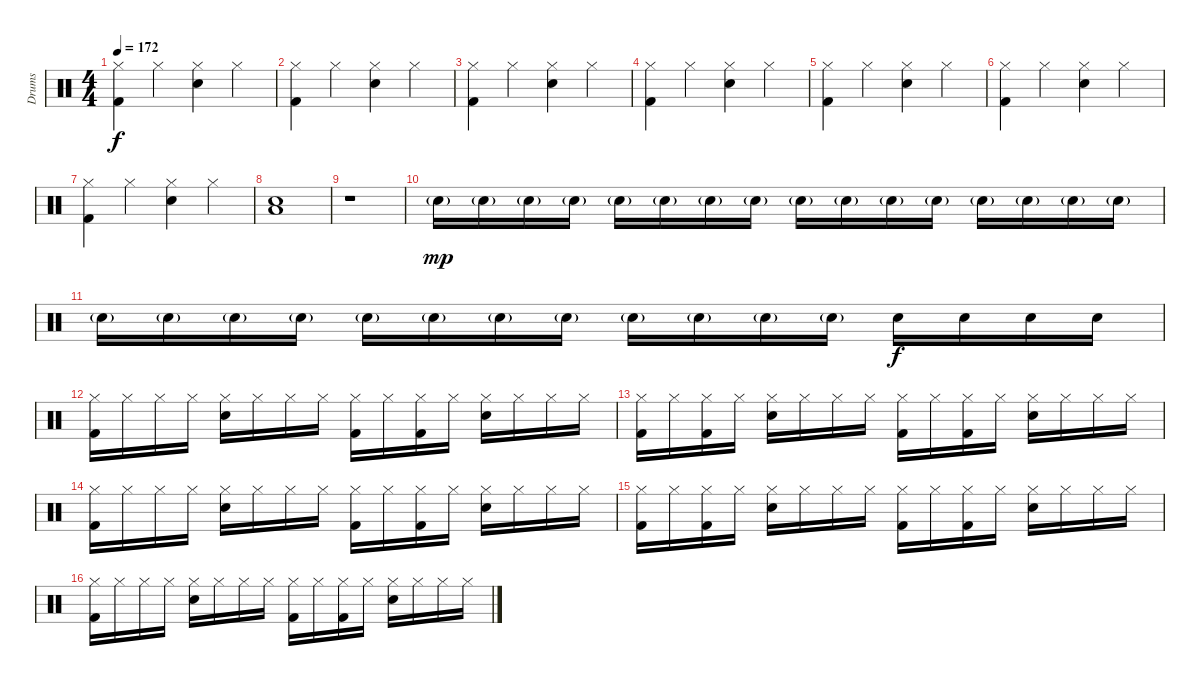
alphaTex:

\track ("Drums" "Drums") {instrument percussion}
\staff {score}
\articulation defaults
\ts (4 4)
\tempo 172
\clef neutral
\ks c
("Hi-Hat (closed)" "Kick (hit) 2").4{dy f} "Hi-Hat (closed)".4 ("Hi-Hat (closed)" "Electric Snare (hit)").4 "Hi-Hat (closed)".4 |
("Hi-Hat (closed)" "Kick (hit) 2").4 "Hi-Hat (closed)".4 ("Hi-Hat (closed)" "Electric Snare (hit)").4 "Hi-Hat (closed)".4 |
("Hi-Hat (closed)" "Kick (hit) 2").4 "Hi-Hat (closed)".4 ("Hi-Hat (closed)" "Electric Snare (hit)").4 "Hi-Hat (closed)".4 |
("Hi-Hat (closed)" "Kick (hit) 2").4 "Hi-Hat (closed)".4 ("Hi-Hat (closed)" "Electric Snare (hit)").4 "Hi-Hat (closed)".4 |
("Hi-Hat (closed)" "Kick (hit) 2").4 "Hi-Hat (closed)".4 ("Hi-Hat (closed)" "Electric Snare (hit)").4 "Hi-Hat (closed)".4 |
("Hi-Hat (closed)" "Kick (hit) 2").4 "Hi-Hat (closed)".4 ("Hi-Hat (closed)" "Electric Snare (hit)").4 "Hi-Hat (closed)".4 |
("Hi-Hat (closed)" "Kick (hit) 2").4 "Hi-Hat (closed)".4 ("Hi-Hat (closed)" "Electric Snare (hit)").4 "Hi-Hat (closed)".4 |
("Low Tom (hit)" "Electric Snare (hit)").1 |
r.1 |
"Snare (hit) 2"{g}.16{dy mp} "Snare (hit) 2"{g}.16 "Snare (hit) 2"{g}.16 "Snare (hit) 2"{g}.16 "Snare (hit) 2"{g}.16 "Snare (hit) 2"{g}.16 "Snare (hit) 2"{g}.16 "Snare (hit) 2"{g}.16 "Snare (hit) 2"{g}.16 "Snare (hit) 2"{g}.16 "Snare (hit) 2"{g}.16 "Snare (hit) 2"{g}.16 "Snare (hit) 2"{g}.16 "Snare (hit) 2"{g}.16 "Snare (hit) 2"{g}.16 "Snare (hit) 2"{g}.16 |
"Snare (hit) 2"{g}.16 "Snare (hit) 2"{g}.16 "Snare (hit) 2"{g}.16 "Snare (hit) 2"{g}.16 "Snare (hit) 2"{g}.16 "Snare (hit) 2"{g}.16 "Snare (hit) 2"{g}.16 "Snare (hit) 2"{g}.16 "Snare (hit) 2"{g}.16 "Snare (hit) 2"{g}.16 "Snare (hit) 2"{g}.16 "Snare (hit) 2"{g}.16 "Electric Snare (hit)".16{dy f} "Electric Snare (hit)".16 "Electric Snare (hit)".16 "Electric Snare (hit)".16 |
("Hi-Hat (closed)" "Kick (hit) 2").16 "Hi-Hat (closed)".16 "Hi-Hat (closed)".16 "Hi-Hat (closed)".16 ("Hi-Hat (closed)" "Electric Snare (hit)").16 "Hi-Hat (closed)".16 "Hi-Hat (closed)".16 "Hi-Hat (closed)".16 ("Hi-Hat (closed)" "Kick (hit) 2").16 "Hi-Hat (closed)".16 ("Hi-Hat (closed)" "Kick (hit) 2").16 "Hi-Hat (closed)".16 ("Hi-Hat (closed)" "Electric Snare (hit)").16 "Hi-Hat (closed)".16 "Hi-Hat (closed)".16 "Hi-Hat (closed)".16 |
("Hi-Hat (closed)" "Kick (hit) 2").16 "Hi-Hat (closed)".16 ("Hi-Hat (closed)" "Kick (hit) 2").16 "Hi-Hat (closed)".16 ("Hi-Hat (closed)" "Electric Snare (hit)").16 "Hi-Hat (closed)".16 "Hi-Hat (closed)".16 "Hi-Hat (closed)".16 ("Hi-Hat (closed)" "Kick (hit) 2").16 "Hi-Hat (closed)".16 ("Hi-Hat (closed)" "Kick (hit) 2").16 "Hi-Hat (closed)".16 ("Hi-Hat (closed)" "Electric Snare (hit)").16 "Hi-Hat (closed)".16 "Hi-Hat (closed)".16 "Hi-Hat (closed)".16 |
("Hi-Hat (closed)" "Kick (hit) 2").16 "Hi-Hat (closed)".16 "Hi-Hat (closed)".16 "Hi-Hat (closed)".16 ("Hi-Hat (closed)" "Electric Snare (hit)").16 "Hi-Hat (closed)".16 "Hi-Hat (closed)".16 "Hi-Hat (closed)".16 ("Hi-Hat (closed)" "Kick (hit) 2").16 "Hi-Hat (closed)".16 ("Hi-Hat (closed)" "Kick (hit) 2").16 "Hi-Hat (closed)".16 ("Hi-Hat (closed)" "Electric Snare (hit)").16 "Hi-Hat (closed)".16 "Hi-Hat (closed)".16 "Hi-Hat (closed)".16 |
("Hi-Hat (closed)" "Kick (hit) 2").16 "Hi-Hat (closed)".16 ("Hi-Hat (closed)" "Kick (hit) 2").16 "Hi-Hat (closed)".16 ("Hi-Hat (closed)" "Electric Snare (hit)").16 "Hi-Hat (closed)".16 "Hi-Hat (closed)".16 "Hi-Hat (closed)".16 ("Hi-Hat (closed)" "Kick (hit) 2").16 "Hi-Hat (closed)".16 ("Hi-Hat (closed)" "Kick (hit) 2").16 "Hi-Hat (closed)".16 ("Hi-Hat (closed)" "Electric Snare (hit)").16 "Hi-Hat (closed)".16 "Hi-Hat (closed)".16 "Hi-Hat (closed)".16 |
("Hi-Hat (closed)" "Kick (hit) 2").16 "Hi-Hat (closed)".16 "Hi-Hat (closed)".16 "Hi-Hat (closed)".16 ("Hi-Hat (closed)" "Electric Snare (hit)").16 "Hi-Hat (closed)".16 "Hi-Hat (closed)".16 "Hi-Hat (closed)".16 ("Hi-Hat (closed)" "Kick (hit) 2").16 "Hi-Hat (closed)".16 ("Hi-Hat (closed)" "Kick (hit) 2").16 "Hi-Hat (closed)".16 ("Hi-Hat (closed)" "Electric Snare (hit)").16 "Hi-Hat (closed)".16 "Hi-Hat (closed)".16 "Hi-Hat (closed)".16
